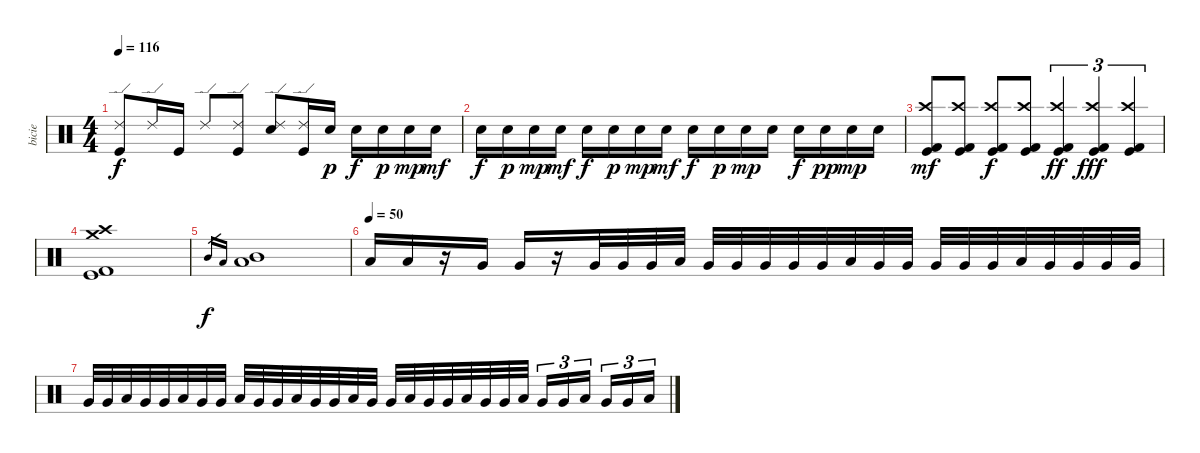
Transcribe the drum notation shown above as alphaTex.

\track ("bicie" "bicie") {instrument percussion}
\staff {score}
\articulation defaults
\ts (4 4)
\tempo 116
\clef neutral
\ks c
("Ride (edge) 2" "Kick (hit)").8{dy f} "Ride (edge) 2".16 "Kick (hit)".16 "Ride (edge) 2".8 ("Ride (edge) 2" "Kick (hit)").8 ("Ride (edge) 2" "Electric Snare (hit)").8 ("Ride (edge) 2" "Kick (hit)").16 "Electric Snare (hit)".16{dy p} "Electric Snare (hit)".16{dy f} "Electric Snare (hit)".16{dy p} "Electric Snare (hit)".16{dy mp} "Electric Snare (hit)".16{dy mf} |
"Electric Snare (hit)".16{dy f} "Electric Snare (hit)".16{dy p} "Electric Snare (hit)".16{dy mp} "Electric Snare (hit)".16{dy mf} "Electric Snare (hit)".16{dy f} "Electric Snare (hit)".16{dy p} "Electric Snare (hit)".16{dy mp} "Electric Snare (hit)".16{dy mf} "Electric Snare (hit)".16{dy f} "Electric Snare (hit)".16{dy p} "Electric Snare (hit)".16{dy mp} "Electric Snare (hit)".16 "Electric Snare (hit)".16{dy f} "Electric Snare (hit)".16{dy pp} "Electric Snare (hit)".16{dy mp} "Electric Snare (hit)".16 |
("Crash high (hit)" "Kick (hit) 2" "Kick (hit)").8{dy mf} ("Crash high (hit)" "Kick (hit) 2" "Kick (hit)").8 ("Crash high (hit)" "Kick (hit) 2" "Kick (hit)").8{dy f} ("Crash high (hit)" "Kick (hit) 2" "Kick (hit)").8 ("Crash high (hit)" "Kick (hit) 2" "Kick (hit)").4{tu (3 2) dy ff} ("Crash high (hit)" "Kick (hit) 2" "Kick (hit)").4{tu (3 2) dy fff} ("Crash high (hit)" "Kick (hit) 2" "Kick (hit)").4{tu (3 2)} |
("Crash high (hit)" "Crash medium (hit)" "Kick (hit) 2" "Kick (hit)").1 |
"Mid Tom (hit)".16{gr dy f} "Low Tom (hit)".16{gr} ("Mid Tom (hit)" "Low Tom (hit)").1 |
\tempo (50)
"Low Tom (hit)".16{volume 0} "Low Tom (hit)".16 r.16 "Very Low Tom (hit)".16 "Very Low Tom (hit)".16 r.16 "Very Low Tom (hit)".32 "Very Low Tom (hit)".32 "Very Low Tom (hit)".32 "Low Floor Tom (hit)".32 "Very Low Tom (hit)".32 "Very Low Tom (hit)".32 "Very Low Tom (hit)".32 "Very Low Tom (hit)".32 "Very Low Tom (hit)".32 "Low Floor Tom (hit)".32 "Very Low Tom (hit)".32 "Very Low Tom (hit)".32 "Very Low Tom (hit)".32 "Very Low Tom (hit)".32 "Very Low Tom (hit)".32 "Low Floor Tom (hit)".32 "Very Low Tom (hit)".32 "Very Low Tom (hit)".32 "Very Low Tom (hit)".32 "Very Low Tom (hit)".32 |
"Very Low Tom (hit)".32 "Very Low Tom (hit)".32 "Low Floor Tom (hit)".32 "Very Low Tom (hit)".32 "Very Low Tom (hit)".32 "Low Floor Tom (hit)".32 "Very Low Tom (hit)".32 "Very Low Tom (hit)".32 "Low Floor Tom (hit)".32 "Very Low Tom (hit)".32 "Very Low Tom (hit)".32 "Low Floor Tom (hit)".32 "Very Low Tom (hit)".32 "Very Low Tom (hit)".32 "Low Floor Tom (hit)".32 "Very Low Tom (hit)".32 "Very Low Tom (hit)".32 "Low Floor Tom (hit)".32 "Very Low Tom (hit)".32 "Very Low Tom (hit)".32 "Low Floor Tom (hit)".32 "Very Low Tom (hit)".32 "Very Low Tom (hit)".32 "Low Floor Tom (hit)".32 "Very Low Tom (hit)".16{tu (3 2)} "Very Low Tom (hit)".16{tu (3 2)} "Low Floor Tom (hit)".16{tu (3 2)} "Very Low Tom (hit)".16{tu (3 2)} "Very Low Tom (hit)".16{tu (3 2)} "Low Floor Tom (hit)".16{tu (3 2)}
